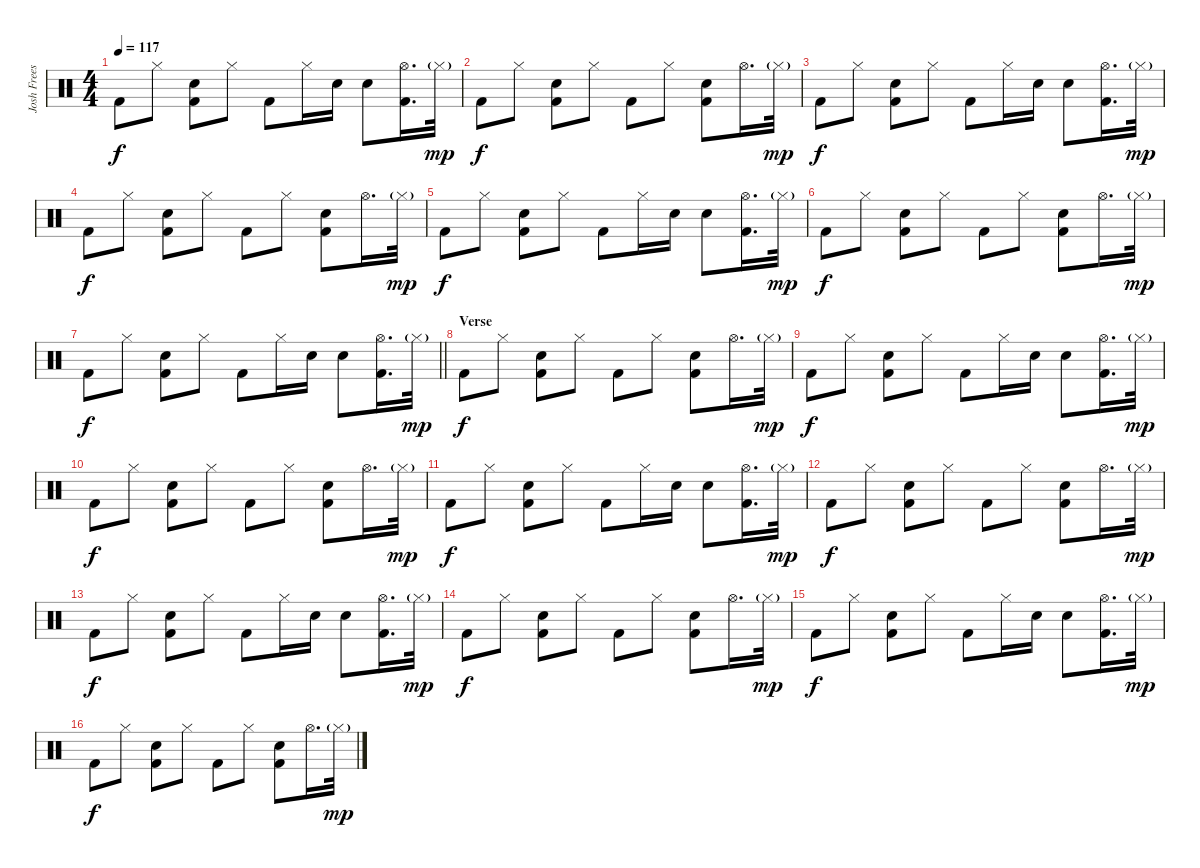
\track ("Josh Freese" "Josh Frees") {instrument percussion}
\staff {score}
\articulation defaults
\ts (4 4)
\tempo 117
\clef neutral
\ks c "Kick (hit) 2".8{dy f} "Hi-Hat (closed)".8
("Electric Snare (hit)" "Kick (hit) 2").8 "Hi-Hat (closed)".8 "Kick (hit) 2".8 "Hi-Hat (closed)".16 "Electric Snare (hit)".16 "Electric Snare (hit)".8 ("Hi-Hat (open)" "Kick (hit) 2").16{d} "Hi-Hat (closed)"{g}.32{dy mp} |
"Kick (hit) 2".8{dy f} "Hi-Hat (closed)".8 ("Electric Snare (hit)" "Kick (hit) 2").8 "Hi-Hat (closed)".8 "Kick (hit) 2".8 "Hi-Hat (closed)".8 ("Electric Snare (hit)" "Kick (hit) 2").8 "Hi-Hat (open)".16{d} "Hi-Hat (closed)"{g}.32{dy mp} |
"Kick (hit) 2".8{dy f} "Hi-Hat (closed)".8 ("Electric Snare (hit)" "Kick (hit) 2").8 "Hi-Hat (closed)".8 "Kick (hit) 2".8 "Hi-Hat (closed)".16 "Electric Snare (hit)".16 "Electric Snare (hit)".8 ("Hi-Hat (open)" "Kick (hit) 2").16{d} "Hi-Hat (closed)"{g}.32{dy mp} |
"Kick (hit) 2".8{dy f} "Hi-Hat (closed)".8 ("Electric Snare (hit)" "Kick (hit) 2").8 "Hi-Hat (closed)".8 "Kick (hit) 2".8 "Hi-Hat (closed)".8 ("Electric Snare (hit)" "Kick (hit) 2").8 "Hi-Hat (open)".16{d} "Hi-Hat (closed)"{g}.32{dy mp} |
"Kick (hit) 2".8{dy f} "Hi-Hat (closed)".8 ("Electric Snare (hit)" "Kick (hit) 2").8 "Hi-Hat (closed)".8 "Kick (hit) 2".8 "Hi-Hat (closed)".16 "Electric Snare (hit)".16 "Electric Snare (hit)".8 ("Hi-Hat (open)" "Kick (hit) 2").16{d} "Hi-Hat (closed)"{g}.32{dy mp} |
"Kick (hit) 2".8{dy f} "Hi-Hat (closed)".8 ("Electric Snare (hit)" "Kick (hit) 2").8 "Hi-Hat (closed)".8 "Kick (hit) 2".8 "Hi-Hat (closed)".8 ("Electric Snare (hit)" "Kick (hit) 2").8 "Hi-Hat (open)".16{d} "Hi-Hat (closed)"{g}.32{dy mp} |
\barLineRight lightlight "Kick (hit) 2".8{dy f} "Hi-Hat (closed)".8
("Electric Snare (hit)" "Kick (hit) 2").8 "Hi-Hat (closed)".8 "Kick (hit) 2".8 "Hi-Hat (closed)".16 "Electric Snare (hit)".16 "Electric Snare (hit)".8 ("Hi-Hat (open)" "Kick (hit) 2").16{d} "Hi-Hat (closed)"{g}.32{dy mp} |
\section ("" "Verse")
"Kick (hit) 2".8{dy f} "Hi-Hat (closed)".8 ("Electric Snare (hit)" "Kick (hit) 2").8 "Hi-Hat (closed)".8 "Kick (hit) 2".8 "Hi-Hat (closed)".8 ("Electric Snare (hit)" "Kick (hit) 2").8 "Hi-Hat (open)".16{d} "Hi-Hat (closed)"{g}.32{dy mp} |
"Kick (hit) 2".8{dy f} "Hi-Hat (closed)".8 ("Electric Snare (hit)" "Kick (hit) 2").8 "Hi-Hat (closed)".8 "Kick (hit) 2".8 "Hi-Hat (closed)".16 "Electric Snare (hit)".16 "Electric Snare (hit)".8 ("Hi-Hat (open)" "Kick (hit) 2").16{d} "Hi-Hat (closed)"{g}.32{dy mp} |
"Kick (hit) 2".8{dy f} "Hi-Hat (closed)".8 ("Electric Snare (hit)" "Kick (hit) 2").8 "Hi-Hat (closed)".8 "Kick (hit) 2".8 "Hi-Hat (closed)".8 ("Electric Snare (hit)" "Kick (hit) 2").8 "Hi-Hat (open)".16{d} "Hi-Hat (closed)"{g}.32{dy mp} |
"Kick (hit) 2".8{dy f} "Hi-Hat (closed)".8 ("Electric Snare (hit)" "Kick (hit) 2").8 "Hi-Hat (closed)".8 "Kick (hit) 2".8 "Hi-Hat (closed)".16 "Electric Snare (hit)".16 "Electric Snare (hit)".8 ("Hi-Hat (open)" "Kick (hit) 2").16{d} "Hi-Hat (closed)"{g}.32{dy mp} |
"Kick (hit) 2".8{dy f} "Hi-Hat (closed)".8 ("Electric Snare (hit)" "Kick (hit) 2").8 "Hi-Hat (closed)".8 "Kick (hit) 2".8 "Hi-Hat (closed)".8 ("Electric Snare (hit)" "Kick (hit) 2").8 "Hi-Hat (open)".16{d} "Hi-Hat (closed)"{g}.32{dy mp} |
"Kick (hit) 2".8{dy f} "Hi-Hat (closed)".8 ("Electric Snare (hit)" "Kick (hit) 2").8 "Hi-Hat (closed)".8 "Kick (hit) 2".8 "Hi-Hat (closed)".16 "Electric Snare (hit)".16 "Electric Snare (hit)".8 ("Hi-Hat (open)" "Kick (hit) 2").16{d} "Hi-Hat (closed)"{g}.32{dy mp} |
"Kick (hit) 2".8{dy f} "Hi-Hat (closed)".8 ("Electric Snare (hit)" "Kick (hit) 2").8 "Hi-Hat (closed)".8 "Kick (hit) 2".8 "Hi-Hat (closed)".8 ("Electric Snare (hit)" "Kick (hit) 2").8 "Hi-Hat (open)".16{d} "Hi-Hat (closed)"{g}.32{dy mp} |
"Kick (hit) 2".8{dy f} "Hi-Hat (closed)".8 ("Electric Snare (hit)" "Kick (hit) 2").8 "Hi-Hat (closed)".8 "Kick (hit) 2".8 "Hi-Hat (closed)".16 "Electric Snare (hit)".16 "Electric Snare (hit)".8 ("Hi-Hat (open)" "Kick (hit) 2").16{d} "Hi-Hat (closed)"{g}.32{dy mp} |
"Kick (hit) 2".8{dy f} "Hi-Hat (closed)".8 ("Electric Snare (hit)" "Kick (hit) 2").8 "Hi-Hat (closed)".8 "Kick (hit) 2".8 "Hi-Hat (closed)".8 ("Electric Snare (hit)" "Kick (hit) 2").8 "Hi-Hat (open)".16{d} "Hi-Hat (closed)"{g}.32{dy mp}
